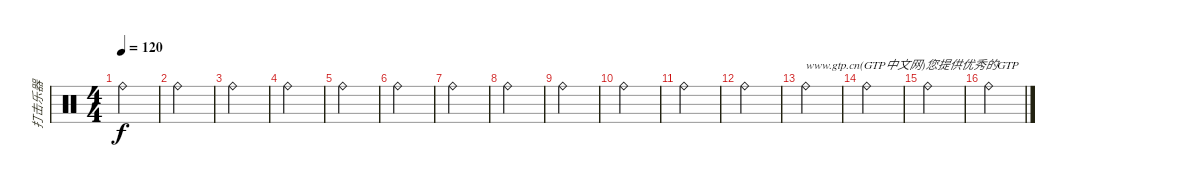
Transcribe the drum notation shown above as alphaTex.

\track ("打击乐器" "打击乐器") {instrument percussion}
\staff {score}
\articulation defaults
\ts (4 4)
\tempo 120
\clef neutral
\ks c "Ride (bell)".4{dy f}
|
"Ride (bell)".4 |
"Ride (bell)".4 |
"Ride (bell)".4 |
"Ride (bell)".4 |
"Ride (bell)".4 |
"Ride (bell)".4 |
"Ride (bell)".4 |
"Ride (bell)".4 |
"Ride (bell)".4 |
"Ride (bell)".4 |
"Ride (bell)".4 |
"Ride (bell)".4{txt "www.gtp.cn(GTP中文网)您提供优秀的GTP"} |
"Ride (bell)".4 |
"Ride (bell)".4 |
"Ride (bell)".4
